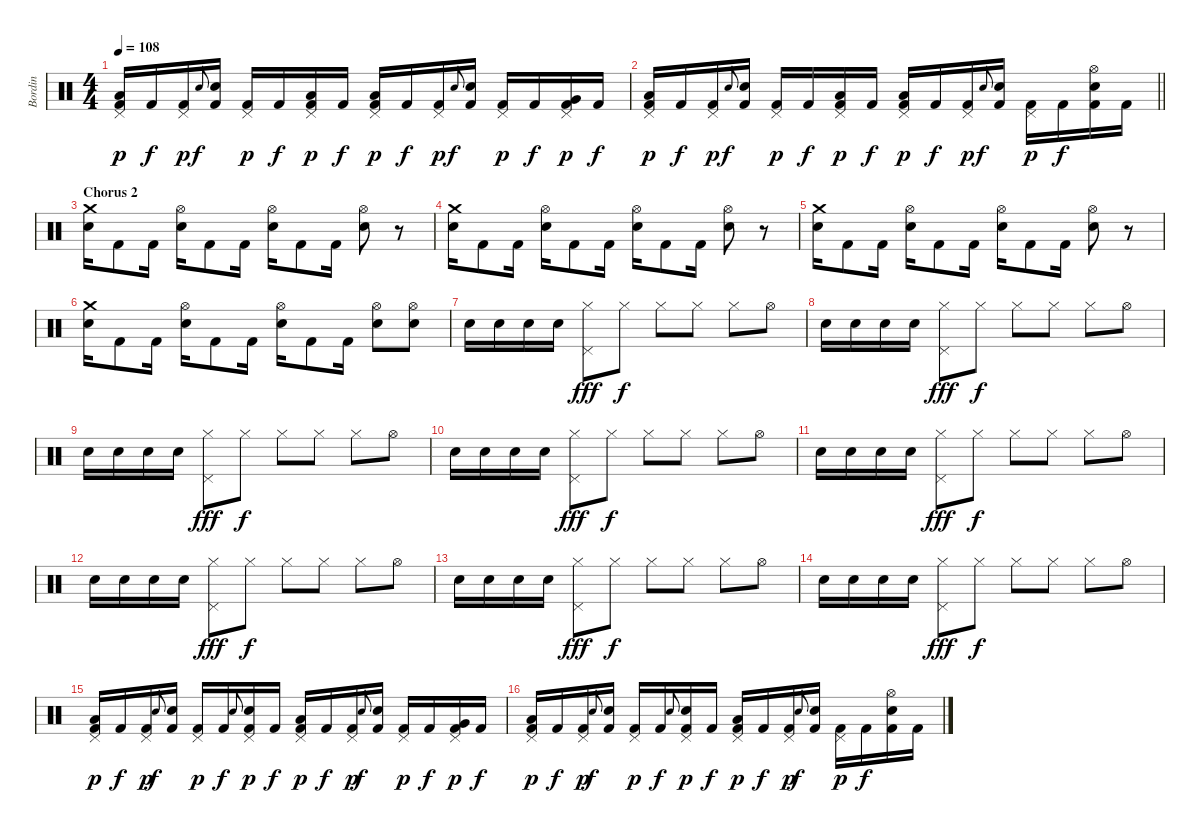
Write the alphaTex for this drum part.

\track ("Bordin" "Bordin") {instrument percussion}
\staff {score}
\articulation defaults
\ts (4 4)
\tempo 108
\clef neutral
\ks c
("Low Tom (hit)" "Pedal Hi-Hat (hit)" "Kick (hit) 2").16{dy p} "Kick (hit) 2".16{dy f} ("Pedal Hi-Hat (hit)" "Kick (hit) 2").16{dy p} "Electric Snare (hit)".8{gr onbeat dy f} ("Electric Snare (hit)" "Kick (hit) 2").16 ("Pedal Hi-Hat (hit)" "Kick (hit) 2").16{dy p} "Kick (hit) 2".16{dy f} ("Low Tom (hit)" "Pedal Hi-Hat (hit)" "Kick (hit) 2").16{dy p} "Kick (hit) 2".16{dy f} ("Low Tom (hit)" "Pedal Hi-Hat (hit)" "Kick (hit) 2").16{dy p} "Kick (hit) 2".16{dy f} ("Pedal Hi-Hat (hit)" "Kick (hit) 2").16{dy p} "Electric Snare (hit)".8{gr onbeat dy f} ("Electric Snare (hit)" "Kick (hit) 2").16 ("Pedal Hi-Hat (hit)" "Kick (hit) 2").16{dy p} "Kick (hit) 2".16{dy f} ("Very Low Tom (hit)" "Pedal Hi-Hat (hit)" "Kick (hit) 2").16{dy p} "Kick (hit) 2".16{dy f} |
\barLineRight lightlight
("Low Tom (hit)" "Pedal Hi-Hat (hit)" "Kick (hit) 2").16{dy p} "Kick (hit) 2".16{dy f} ("Pedal Hi-Hat (hit)" "Kick (hit) 2").16{dy p} "Electric Snare (hit)".8{gr onbeat dy f} ("Electric Snare (hit)" "Kick (hit) 2").16 ("Pedal Hi-Hat (hit)" "Kick (hit) 2").16{dy p} "Kick (hit) 2".16{dy f} ("Low Tom (hit)" "Pedal Hi-Hat (hit)" "Kick (hit) 2").16{dy p} "Kick (hit) 2".16{dy f} ("Low Tom (hit)" "Pedal Hi-Hat (hit)" "Kick (hit) 2").16{dy p} "Kick (hit) 2".16{dy f} ("Pedal Hi-Hat (hit)" "Kick (hit) 2").16{dy p} "Electric Snare (hit)".8{gr onbeat dy f} ("Electric Snare (hit)" "Kick (hit) 2").16 ("Pedal Hi-Hat (hit)" "Kick (hit) 2").16{dy p} "Kick (hit) 2".16{dy f} ("Hi-Hat (open)" "Electric Snare (hit)" "Kick (hit) 2").16 "Kick (hit) 2".16 |
\section ("" "Chorus 2")
("Crash medium (hit)" "Electric Snare (hit)").16 "Kick (hit) 2".8 "Kick (hit) 2".16 ("Hi-Hat (open)" "Electric Snare (hit)").16 "Kick (hit) 2".8 "Kick (hit) 2".16 ("Hi-Hat (open)" "Electric Snare (hit)").16 "Kick (hit) 2".8 "Kick (hit) 2".16 ("Hi-Hat (open)" "Electric Snare (hit)").8 r.8 |
("Crash medium (hit)" "Electric Snare (hit)").16 "Kick (hit) 2".8 "Kick (hit) 2".16 ("Hi-Hat (open)" "Electric Snare (hit)").16 "Kick (hit) 2".8 "Kick (hit) 2".16 ("Hi-Hat (open)" "Electric Snare (hit)").16 "Kick (hit) 2".8 "Kick (hit) 2".16 ("Hi-Hat (open)" "Electric Snare (hit)").8 r.8 |
("Crash medium (hit)" "Electric Snare (hit)").16 "Kick (hit) 2".8 "Kick (hit) 2".16 ("Hi-Hat (open)" "Electric Snare (hit)").16 "Kick (hit) 2".8 "Kick (hit) 2".16 ("Hi-Hat (open)" "Electric Snare (hit)").16 "Kick (hit) 2".8 "Kick (hit) 2".16 ("Hi-Hat (open)" "Electric Snare (hit)").8 r.8 |
("Crash medium (hit)" "Electric Snare (hit)").16 "Kick (hit) 2".8 "Kick (hit) 2".16 ("Hi-Hat (open)" "Electric Snare (hit)").16 "Kick (hit) 2".8 "Kick (hit) 2".16 ("Hi-Hat (open)" "Electric Snare (hit)").16 "Kick (hit) 2".8 "Kick (hit) 2".16 ("Hi-Hat (open)" "Electric Snare (hit)").8 ("Hi-Hat (open)" "Electric Snare (hit)").8 |
"Electric Snare (hit)".16 "Electric Snare (hit)".16 "Electric Snare (hit)".16 "Electric Snare (hit)".16 ("Pedal Hi-Hat (hit)" "Hi-Hat (closed)").8{dy fff} "Hi-Hat (closed)".8{dy f} "Hi-Hat (closed)".8 "Hi-Hat (closed)".8 "Hi-Hat (closed)".8 "Hi-Hat (open)".8 |
"Electric Snare (hit)".16 "Electric Snare (hit)".16 "Electric Snare (hit)".16 "Electric Snare (hit)".16 ("Pedal Hi-Hat (hit)" "Hi-Hat (closed)").8{dy fff} "Hi-Hat (closed)".8{dy f} "Hi-Hat (closed)".8 "Hi-Hat (closed)".8 "Hi-Hat (closed)".8 "Hi-Hat (open)".8 |
"Electric Snare (hit)".16 "Electric Snare (hit)".16 "Electric Snare (hit)".16 "Electric Snare (hit)".16 ("Pedal Hi-Hat (hit)" "Hi-Hat (closed)").8{dy fff} "Hi-Hat (closed)".8{dy f} "Hi-Hat (closed)".8 "Hi-Hat (closed)".8 "Hi-Hat (closed)".8 "Hi-Hat (open)".8 |
"Electric Snare (hit)".16 "Electric Snare (hit)".16 "Electric Snare (hit)".16 "Electric Snare (hit)".16 ("Pedal Hi-Hat (hit)" "Hi-Hat (closed)").8{dy fff} "Hi-Hat (closed)".8{dy f} "Hi-Hat (closed)".8 "Hi-Hat (closed)".8 "Hi-Hat (closed)".8 "Hi-Hat (open)".8 |
"Electric Snare (hit)".16 "Electric Snare (hit)".16 "Electric Snare (hit)".16 "Electric Snare (hit)".16 ("Pedal Hi-Hat (hit)" "Hi-Hat (closed)").8{dy fff} "Hi-Hat (closed)".8{dy f} "Hi-Hat (closed)".8 "Hi-Hat (closed)".8 "Hi-Hat (closed)".8 "Hi-Hat (open)".8 |
"Electric Snare (hit)".16 "Electric Snare (hit)".16 "Electric Snare (hit)".16 "Electric Snare (hit)".16 ("Pedal Hi-Hat (hit)" "Hi-Hat (closed)").8{dy fff} "Hi-Hat (closed)".8{dy f} "Hi-Hat (closed)".8 "Hi-Hat (closed)".8 "Hi-Hat (closed)".8 "Hi-Hat (open)".8 |
"Electric Snare (hit)".16 "Electric Snare (hit)".16 "Electric Snare (hit)".16 "Electric Snare (hit)".16 ("Pedal Hi-Hat (hit)" "Hi-Hat (closed)").8{dy fff} "Hi-Hat (closed)".8{dy f} "Hi-Hat (closed)".8 "Hi-Hat (closed)".8 "Hi-Hat (closed)".8 "Hi-Hat (open)".8 |
"Electric Snare (hit)".16 "Electric Snare (hit)".16 "Electric Snare (hit)".16 "Electric Snare (hit)".16 ("Pedal Hi-Hat (hit)" "Hi-Hat (closed)").8{dy fff} "Hi-Hat (closed)".8{dy f} "Hi-Hat (closed)".8 "Hi-Hat (closed)".8 "Hi-Hat (closed)".8 "Hi-Hat (open)".8 |
("Low Tom (hit)" "Pedal Hi-Hat (hit)" "Kick (hit) 2").16{dy p} "Kick (hit) 2".16{dy f} ("Pedal Hi-Hat (hit)" "Kick (hit) 2").16{dy p} "Electric Snare (hit)".8{gr onbeat dy f} ("Electric Snare (hit)" "Kick (hit) 2").16 ("Pedal Hi-Hat (hit)" "Kick (hit) 2").16{dy p} "Kick (hit) 2".16{dy f} "Electric Snare (hit)".8{gr onbeat} ("Pedal Hi-Hat (hit)" "Electric Snare (hit)" "Kick (hit) 2").16{dy p} "Kick (hit) 2".16{dy f} ("Low Tom (hit)" "Pedal Hi-Hat (hit)" "Kick (hit) 2").16{dy p} "Kick (hit) 2".16{dy f} ("Pedal Hi-Hat (hit)" "Kick (hit) 2").16{dy p} "Electric Snare (hit)".8{gr onbeat dy f} ("Electric Snare (hit)" "Kick (hit) 2").16 ("Pedal Hi-Hat (hit)" "Kick (hit) 2").16{dy p} "Kick (hit) 2".16{dy f} ("Very Low Tom (hit)" "Pedal Hi-Hat (hit)" "Kick (hit) 2").16{dy p} "Kick (hit) 2".16{dy f} |
("Low Tom (hit)" "Pedal Hi-Hat (hit)" "Kick (hit) 2").16{dy p} "Kick (hit) 2".16{dy f} ("Pedal Hi-Hat (hit)" "Kick (hit) 2").16{dy p} "Electric Snare (hit)".8{gr onbeat dy f} ("Electric Snare (hit)" "Kick (hit) 2").16 ("Pedal Hi-Hat (hit)" "Kick (hit) 2").16{dy p} "Kick (hit) 2".16{dy f} "Electric Snare (hit)".8{gr onbeat} ("Pedal Hi-Hat (hit)" "Electric Snare (hit)" "Kick (hit) 2").16{dy p} "Kick (hit) 2".16{dy f} ("Low Tom (hit)" "Pedal Hi-Hat (hit)" "Kick (hit) 2").16{dy p} "Kick (hit) 2".16{dy f} ("Pedal Hi-Hat (hit)" "Kick (hit) 2").16{dy p} "Electric Snare (hit)".8{gr onbeat dy f} ("Electric Snare (hit)" "Kick (hit) 2").16 ("Pedal Hi-Hat (hit)" "Kick (hit) 2").16{dy p} "Kick (hit) 2".16{dy f} ("Hi-Hat (open)" "Electric Snare (hit)" "Kick (hit) 2").16 "Kick (hit) 2".16
